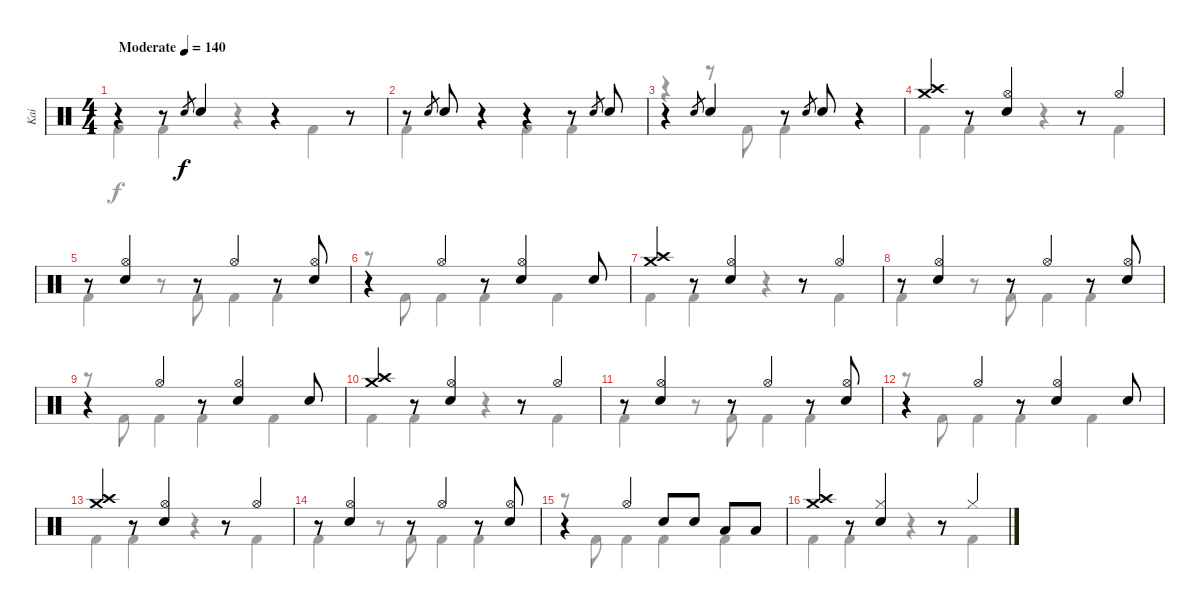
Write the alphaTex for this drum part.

\track ("Kai" "Kai") {instrument percussion}
\staff {score}
\articulation defaults
\voice
\ts (4 4)
\tempo (140 "Moderate")
\clef neutral
\ks c
r.4{dy f} r.8 "Snare (hit) 2".8{gr} "Snare (hit) 2".4 r.4 r.8 |
r.8 "Snare (hit) 2".8{gr} "Snare (hit) 2".8 r.4 r.4 r.8 "Snare (hit) 2".8{gr} "Snare (hit) 2".8 |
r.4 "Snare (hit) 2".8{gr} "Snare (hit) 2".4 r.8 "Snare (hit) 2".8{gr} "Snare (hit) 2".8 r.4 |
("Crash medium (hit)" "Crash high (hit)").4 r.8 ("Hi-Hat (open)" "Snare (hit) 2").4 r.8 "Hi-Hat (open)".4 |
r.8 ("Hi-Hat (open)" "Snare (hit) 2").4 r.8 "Hi-Hat (open)".4 r.8 ("Hi-Hat (open)" "Snare (hit) 2").8 |
r.4 "Hi-Hat (open)".4 r.8 ("Hi-Hat (open)" "Snare (hit) 2").4 "Snare (hit) 2".8 |
("Crash medium (hit)" "Crash high (hit)").4 r.8 ("Hi-Hat (open)" "Snare (hit) 2").4 r.8 "Hi-Hat (open)".4 |
r.8 ("Hi-Hat (open)" "Snare (hit) 2").4 r.8 "Hi-Hat (open)".4 r.8 ("Hi-Hat (open)" "Snare (hit) 2").8 |
r.4 "Hi-Hat (open)".4 r.8 ("Hi-Hat (open)" "Snare (hit) 2").4 "Snare (hit) 2".8 |
("Crash medium (hit)" "Crash high (hit)").4 r.8 ("Hi-Hat (open)" "Snare (hit) 2").4 r.8 "Hi-Hat (open)".4 |
r.8 ("Hi-Hat (open)" "Snare (hit) 2").4 r.8 "Hi-Hat (open)".4 r.8 ("Hi-Hat (open)" "Snare (hit) 2").8 |
r.4 "Hi-Hat (open)".4 r.8 ("Hi-Hat (open)" "Snare (hit) 2").4 "Snare (hit) 2".8 |
("Crash medium (hit)" "Crash high (hit)").4 r.8 ("Hi-Hat (open)" "Snare (hit) 2").4 r.8 "Hi-Hat (open)".4 |
r.8 ("Hi-Hat (open)" "Snare (hit) 2").4 r.8 "Hi-Hat (open)".4 r.8 ("Hi-Hat (open)" "Snare (hit) 2").8 |
r.4 "Hi-Hat (open)".4 "Snare (hit) 2".8 "Snare (hit) 2".8 "Low Tom (hit)".8 "Low Tom (hit)".8 |
("Crash medium (hit)" "Crash high (hit)").4 r.8 ("Hi-Hat (closed)" "Snare (hit) 2").4 r.8 "Hi-Hat (closed)".4
\voice
\clef neutral
\ottava regular
\simile none
\ks c "Kick (hit) 2".4{dy f} "Kick (hit) 2".4
r.4 "Kick (hit) 2".4 |
"Kick (hit) 2".4 r.4 "Kick (hit) 2".4 "Kick (hit) 2".4 |
r.4 r.8 "Kick (hit) 2".8 "Kick (hit) 2".4 r.4 |
"Kick (hit) 2".4 "Kick (hit) 2".4 r.4 "Kick (hit) 2".4 |
"Kick (hit) 2".4 r.8 "Kick (hit) 2".8 "Kick (hit) 2".4 "Kick (hit) 2".4 |
r.8 "Kick (hit) 2".8 "Kick (hit) 2".4 "Kick (hit) 2".4 "Kick (hit) 2".4 |
"Kick (hit) 2".4 "Kick (hit) 2".4 r.4 "Kick (hit) 2".4 |
"Kick (hit) 2".4 r.8 "Kick (hit) 2".8 "Kick (hit) 2".4 "Kick (hit) 2".4 |
r.8 "Kick (hit) 2".8 "Kick (hit) 2".4 "Kick (hit) 2".4 "Kick (hit) 2".4 |
"Kick (hit) 2".4 "Kick (hit) 2".4 r.4 "Kick (hit) 2".4 |
"Kick (hit) 2".4 r.8 "Kick (hit) 2".8 "Kick (hit) 2".4 "Kick (hit) 2".4 |
r.8 "Kick (hit) 2".8 "Kick (hit) 2".4 "Kick (hit) 2".4 "Kick (hit) 2".4 |
"Kick (hit) 2".4 "Kick (hit) 2".4 r.4 "Kick (hit) 2".4 |
"Kick (hit) 2".4 r.8 "Kick (hit) 2".8 "Kick (hit) 2".4 "Kick (hit) 2".4 |
r.8 "Kick (hit) 2".8 "Kick (hit) 2".4 "Kick (hit) 2".4 "Kick (hit) 2".4 |
"Kick (hit) 2".4 "Kick (hit) 2".4 r.4 "Kick (hit) 2".4
